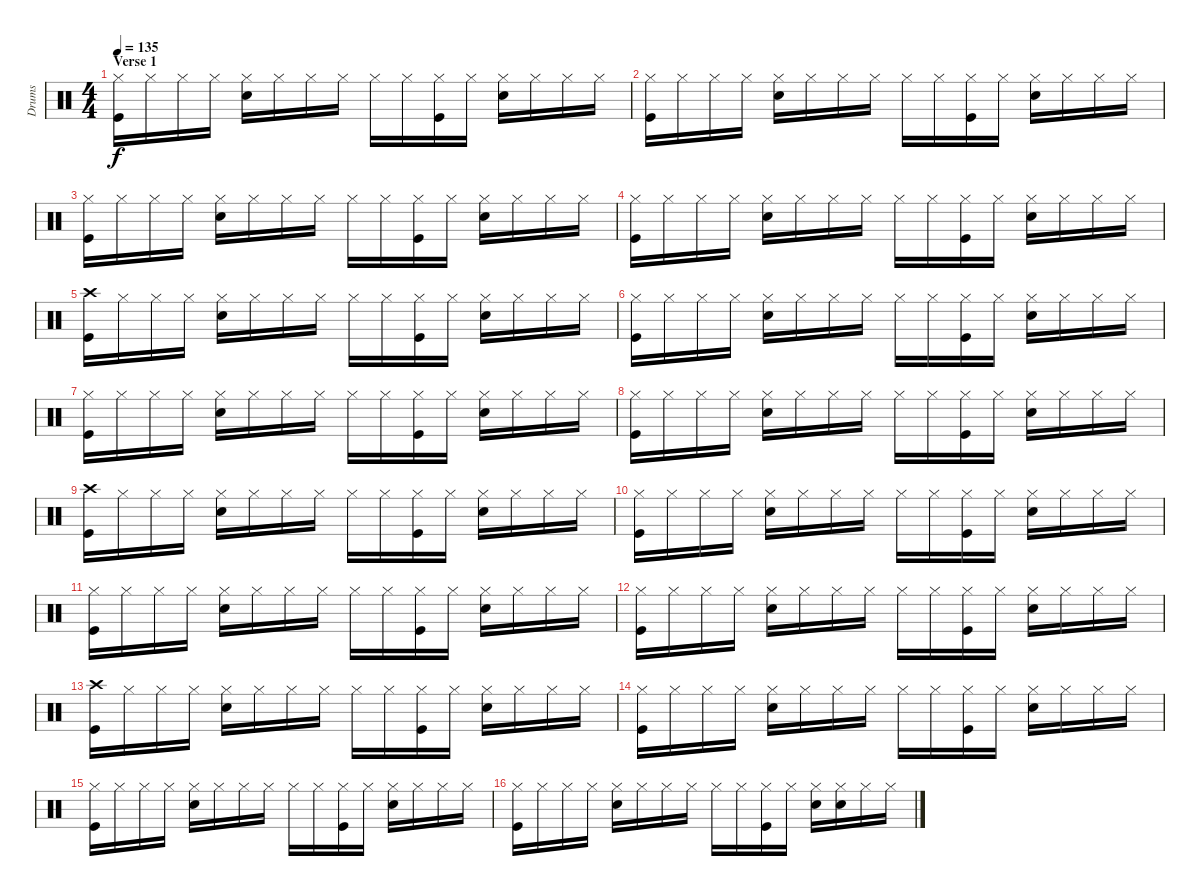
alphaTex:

\track ("Drums" "Drums") {instrument percussion}
\staff {score}
\articulation defaults
\ts (4 4)
\section ("" "Verse 1")
\tempo 135
\clef neutral
\ks c
("Hi-Hat (closed)" "Kick (hit)").16{dy f} "Hi-Hat (closed)".16 "Hi-Hat (closed)".16 "Hi-Hat (closed)".16 ("Hi-Hat (closed)" "Electric Snare (hit)").16 "Hi-Hat (closed)".16 "Hi-Hat (closed)".16 "Hi-Hat (closed)".16 "Hi-Hat (closed)".16 "Hi-Hat (closed)".16 ("Hi-Hat (closed)" "Kick (hit)").16 "Hi-Hat (closed)".16 ("Hi-Hat (closed)" "Electric Snare (hit)").16 "Hi-Hat (closed)".16 "Hi-Hat (closed)".16 "Hi-Hat (closed)".16 |
("Hi-Hat (closed)" "Kick (hit)").16 "Hi-Hat (closed)".16 "Hi-Hat (closed)".16 "Hi-Hat (closed)".16 ("Hi-Hat (closed)" "Electric Snare (hit)").16 "Hi-Hat (closed)".16 "Hi-Hat (closed)".16 "Hi-Hat (closed)".16 "Hi-Hat (closed)".16 "Hi-Hat (closed)".16 ("Hi-Hat (closed)" "Kick (hit)").16 "Hi-Hat (closed)".16 ("Hi-Hat (closed)" "Electric Snare (hit)").16 "Hi-Hat (closed)".16 "Hi-Hat (closed)".16 "Hi-Hat (closed)".16 |
("Hi-Hat (closed)" "Kick (hit)").16 "Hi-Hat (closed)".16 "Hi-Hat (closed)".16 "Hi-Hat (closed)".16 ("Hi-Hat (closed)" "Electric Snare (hit)").16 "Hi-Hat (closed)".16 "Hi-Hat (closed)".16 "Hi-Hat (closed)".16 "Hi-Hat (closed)".16 "Hi-Hat (closed)".16 ("Hi-Hat (closed)" "Kick (hit)").16 "Hi-Hat (closed)".16 ("Hi-Hat (closed)" "Electric Snare (hit)").16 "Hi-Hat (closed)".16 "Hi-Hat (closed)".16 "Hi-Hat (closed)".16 |
("Hi-Hat (closed)" "Kick (hit)").16 "Hi-Hat (closed)".16 "Hi-Hat (closed)".16 "Hi-Hat (closed)".16 ("Hi-Hat (closed)" "Electric Snare (hit)").16 "Hi-Hat (closed)".16 "Hi-Hat (closed)".16 "Hi-Hat (closed)".16 "Hi-Hat (closed)".16 "Hi-Hat (closed)".16 ("Hi-Hat (closed)" "Kick (hit)").16 "Hi-Hat (closed)".16 ("Hi-Hat (closed)" "Electric Snare (hit)").16 "Hi-Hat (closed)".16 "Hi-Hat (closed)".16 "Hi-Hat (closed)".16 |
("Crash high (hit)" "Kick (hit)").16 "Hi-Hat (closed)".16 "Hi-Hat (closed)".16 "Hi-Hat (closed)".16 ("Hi-Hat (closed)" "Electric Snare (hit)").16 "Hi-Hat (closed)".16 "Hi-Hat (closed)".16 "Hi-Hat (closed)".16 "Hi-Hat (closed)".16 "Hi-Hat (closed)".16 ("Hi-Hat (closed)" "Kick (hit)").16 "Hi-Hat (closed)".16 ("Hi-Hat (closed)" "Electric Snare (hit)").16 "Hi-Hat (closed)".16 "Hi-Hat (closed)".16 "Hi-Hat (closed)".16 |
("Hi-Hat (closed)" "Kick (hit)").16 "Hi-Hat (closed)".16 "Hi-Hat (closed)".16 "Hi-Hat (closed)".16 ("Hi-Hat (closed)" "Electric Snare (hit)").16 "Hi-Hat (closed)".16 "Hi-Hat (closed)".16 "Hi-Hat (closed)".16 "Hi-Hat (closed)".16 "Hi-Hat (closed)".16 ("Hi-Hat (closed)" "Kick (hit)").16 "Hi-Hat (closed)".16 ("Hi-Hat (closed)" "Electric Snare (hit)").16 "Hi-Hat (closed)".16 "Hi-Hat (closed)".16 "Hi-Hat (closed)".16 |
("Hi-Hat (closed)" "Kick (hit)").16 "Hi-Hat (closed)".16 "Hi-Hat (closed)".16 "Hi-Hat (closed)".16 ("Hi-Hat (closed)" "Electric Snare (hit)").16 "Hi-Hat (closed)".16 "Hi-Hat (closed)".16 "Hi-Hat (closed)".16 "Hi-Hat (closed)".16 "Hi-Hat (closed)".16 ("Hi-Hat (closed)" "Kick (hit)").16 "Hi-Hat (closed)".16 ("Hi-Hat (closed)" "Electric Snare (hit)").16 "Hi-Hat (closed)".16 "Hi-Hat (closed)".16 "Hi-Hat (closed)".16 |
("Hi-Hat (closed)" "Kick (hit)").16 "Hi-Hat (closed)".16 "Hi-Hat (closed)".16 "Hi-Hat (closed)".16 ("Hi-Hat (closed)" "Electric Snare (hit)").16 "Hi-Hat (closed)".16 "Hi-Hat (closed)".16 "Hi-Hat (closed)".16 "Hi-Hat (closed)".16 "Hi-Hat (closed)".16 ("Hi-Hat (closed)" "Kick (hit)").16 "Hi-Hat (closed)".16 ("Hi-Hat (closed)" "Electric Snare (hit)").16 "Hi-Hat (closed)".16 "Hi-Hat (closed)".16 "Hi-Hat (closed)".16 |
("Crash high (hit)" "Kick (hit)").16 "Hi-Hat (closed)".16 "Hi-Hat (closed)".16 "Hi-Hat (closed)".16 ("Hi-Hat (closed)" "Electric Snare (hit)").16 "Hi-Hat (closed)".16 "Hi-Hat (closed)".16 "Hi-Hat (closed)".16 "Hi-Hat (closed)".16 "Hi-Hat (closed)".16 ("Hi-Hat (closed)" "Kick (hit)").16 "Hi-Hat (closed)".16 ("Hi-Hat (closed)" "Electric Snare (hit)").16 "Hi-Hat (closed)".16 "Hi-Hat (closed)".16 "Hi-Hat (closed)".16 |
("Hi-Hat (closed)" "Kick (hit)").16 "Hi-Hat (closed)".16 "Hi-Hat (closed)".16 "Hi-Hat (closed)".16 ("Hi-Hat (closed)" "Electric Snare (hit)").16 "Hi-Hat (closed)".16 "Hi-Hat (closed)".16 "Hi-Hat (closed)".16 "Hi-Hat (closed)".16 "Hi-Hat (closed)".16 ("Hi-Hat (closed)" "Kick (hit)").16 "Hi-Hat (closed)".16 ("Hi-Hat (closed)" "Electric Snare (hit)").16 "Hi-Hat (closed)".16 "Hi-Hat (closed)".16 "Hi-Hat (closed)".16 |
("Hi-Hat (closed)" "Kick (hit)").16 "Hi-Hat (closed)".16 "Hi-Hat (closed)".16 "Hi-Hat (closed)".16 ("Hi-Hat (closed)" "Electric Snare (hit)").16 "Hi-Hat (closed)".16 "Hi-Hat (closed)".16 "Hi-Hat (closed)".16 "Hi-Hat (closed)".16 "Hi-Hat (closed)".16 ("Hi-Hat (closed)" "Kick (hit)").16 "Hi-Hat (closed)".16 ("Hi-Hat (closed)" "Electric Snare (hit)").16 "Hi-Hat (closed)".16 "Hi-Hat (closed)".16 "Hi-Hat (closed)".16 |
("Hi-Hat (closed)" "Kick (hit)").16 "Hi-Hat (closed)".16 "Hi-Hat (closed)".16 "Hi-Hat (closed)".16 ("Hi-Hat (closed)" "Electric Snare (hit)").16 "Hi-Hat (closed)".16 "Hi-Hat (closed)".16 "Hi-Hat (closed)".16 "Hi-Hat (closed)".16 "Hi-Hat (closed)".16 ("Hi-Hat (closed)" "Kick (hit)").16 "Hi-Hat (closed)".16 ("Hi-Hat (closed)" "Electric Snare (hit)").16 "Hi-Hat (closed)".16 "Hi-Hat (closed)".16 "Hi-Hat (closed)".16 |
("Crash high (hit)" "Kick (hit)").16 "Hi-Hat (closed)".16 "Hi-Hat (closed)".16 "Hi-Hat (closed)".16 ("Hi-Hat (closed)" "Electric Snare (hit)").16 "Hi-Hat (closed)".16 "Hi-Hat (closed)".16 "Hi-Hat (closed)".16 "Hi-Hat (closed)".16 "Hi-Hat (closed)".16 ("Hi-Hat (closed)" "Kick (hit)").16 "Hi-Hat (closed)".16 ("Hi-Hat (closed)" "Electric Snare (hit)").16 "Hi-Hat (closed)".16 "Hi-Hat (closed)".16 "Hi-Hat (closed)".16 |
("Hi-Hat (closed)" "Kick (hit)").16 "Hi-Hat (closed)".16 "Hi-Hat (closed)".16 "Hi-Hat (closed)".16 ("Hi-Hat (closed)" "Electric Snare (hit)").16 "Hi-Hat (closed)".16 "Hi-Hat (closed)".16 "Hi-Hat (closed)".16 "Hi-Hat (closed)".16 "Hi-Hat (closed)".16 ("Hi-Hat (closed)" "Kick (hit)").16 "Hi-Hat (closed)".16 ("Hi-Hat (closed)" "Electric Snare (hit)").16 "Hi-Hat (closed)".16 "Hi-Hat (closed)".16 "Hi-Hat (closed)".16 |
("Hi-Hat (closed)" "Kick (hit)").16 "Hi-Hat (closed)".16 "Hi-Hat (closed)".16 "Hi-Hat (closed)".16 ("Hi-Hat (closed)" "Electric Snare (hit)").16 "Hi-Hat (closed)".16 "Hi-Hat (closed)".16 "Hi-Hat (closed)".16 "Hi-Hat (closed)".16 "Hi-Hat (closed)".16 ("Hi-Hat (closed)" "Kick (hit)").16 "Hi-Hat (closed)".16 ("Hi-Hat (closed)" "Electric Snare (hit)").16 "Hi-Hat (closed)".16 "Hi-Hat (closed)".16 "Hi-Hat (closed)".16 |
("Hi-Hat (closed)" "Kick (hit)").16 "Hi-Hat (closed)".16 "Hi-Hat (closed)".16 "Hi-Hat (closed)".16 ("Hi-Hat (closed)" "Electric Snare (hit)").16 "Hi-Hat (closed)".16 "Hi-Hat (closed)".16 "Hi-Hat (closed)".16 "Hi-Hat (closed)".16 "Hi-Hat (closed)".16 ("Hi-Hat (closed)" "Kick (hit)").16 "Hi-Hat (closed)".16 ("Hi-Hat (closed)" "Electric Snare (hit)").16 ("Hi-Hat (closed)" "Electric Snare (hit)").16 "Hi-Hat (closed)".16 "Hi-Hat (closed)".16
